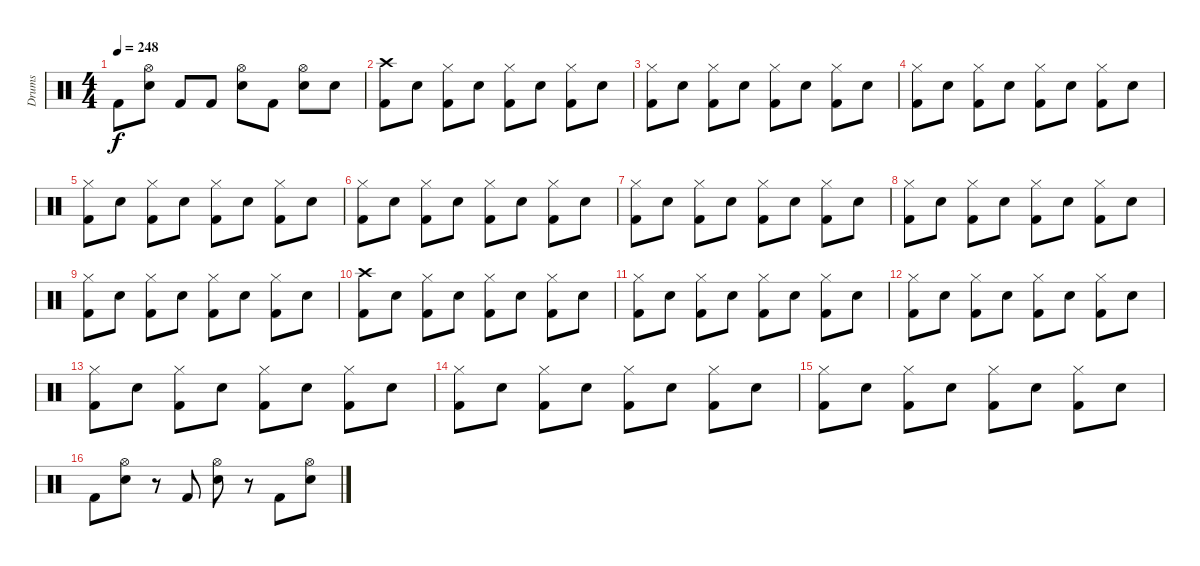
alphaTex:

\track ("Drums" "Drums") {instrument percussion}
\staff {score}
\articulation defaults
\ts (4 4)
\tempo 248
\clef neutral
\ks c "Kick (hit) 2".8{dy f}
("Hi-Hat (open)" "Electric Snare (hit)").8 "Kick (hit) 2".8 "Kick (hit) 2".8 ("Hi-Hat (open)" "Electric Snare (hit)").8 "Kick (hit) 2".8 ("Hi-Hat (open)" "Electric Snare (hit)").8 "Electric Snare (hit)".8 |
("Crash high (hit)" "Kick (hit) 2").8{volume 15} "Electric Snare (hit)".8 ("Hi-Hat (closed)" "Kick (hit) 2").8 "Electric Snare (hit)".8 ("Hi-Hat (closed)" "Kick (hit) 2").8 "Electric Snare (hit)".8 ("Hi-Hat (closed)" "Kick (hit) 2").8 "Electric Snare (hit)".8 |
("Hi-Hat (closed)" "Kick (hit) 2").8 "Electric Snare (hit)".8 ("Hi-Hat (closed)" "Kick (hit) 2").8 "Electric Snare (hit)".8 ("Hi-Hat (closed)" "Kick (hit) 2").8 "Electric Snare (hit)".8 ("Hi-Hat (closed)" "Kick (hit) 2").8 "Electric Snare (hit)".8 |
("Hi-Hat (closed)" "Kick (hit) 2").8 "Electric Snare (hit)".8 ("Hi-Hat (closed)" "Kick (hit) 2").8 "Electric Snare (hit)".8 ("Hi-Hat (closed)" "Kick (hit) 2").8 "Electric Snare (hit)".8 ("Hi-Hat (closed)" "Kick (hit) 2").8 "Electric Snare (hit)".8 |
("Hi-Hat (closed)" "Kick (hit) 2").8 "Electric Snare (hit)".8 ("Hi-Hat (closed)" "Kick (hit) 2").8 "Electric Snare (hit)".8 ("Hi-Hat (closed)" "Kick (hit) 2").8 "Electric Snare (hit)".8 ("Hi-Hat (closed)" "Kick (hit) 2").8 "Electric Snare (hit)".8 |
("Hi-Hat (closed)" "Kick (hit) 2").8 "Electric Snare (hit)".8 ("Hi-Hat (closed)" "Kick (hit) 2").8 "Electric Snare (hit)".8 ("Hi-Hat (closed)" "Kick (hit) 2").8 "Electric Snare (hit)".8 ("Hi-Hat (closed)" "Kick (hit) 2").8 "Electric Snare (hit)".8 |
("Hi-Hat (closed)" "Kick (hit) 2").8 "Electric Snare (hit)".8 ("Hi-Hat (closed)" "Kick (hit) 2").8 "Electric Snare (hit)".8 ("Hi-Hat (closed)" "Kick (hit) 2").8 "Electric Snare (hit)".8 ("Hi-Hat (closed)" "Kick (hit) 2").8 "Electric Snare (hit)".8 |
("Hi-Hat (closed)" "Kick (hit) 2").8 "Electric Snare (hit)".8 ("Hi-Hat (closed)" "Kick (hit) 2").8 "Electric Snare (hit)".8 ("Hi-Hat (closed)" "Kick (hit) 2").8 "Electric Snare (hit)".8 ("Hi-Hat (closed)" "Kick (hit) 2").8 "Electric Snare (hit)".8 |
("Hi-Hat (closed)" "Kick (hit) 2").8 "Electric Snare (hit)".8 ("Hi-Hat (closed)" "Kick (hit) 2").8 "Electric Snare (hit)".8 ("Hi-Hat (closed)" "Kick (hit) 2").8 "Electric Snare (hit)".8 ("Hi-Hat (closed)" "Kick (hit) 2").8 "Electric Snare (hit)".8 |
("Crash high (hit)" "Kick (hit) 2").8 "Electric Snare (hit)".8 ("Hi-Hat (closed)" "Kick (hit) 2").8 "Electric Snare (hit)".8 ("Hi-Hat (closed)" "Kick (hit) 2").8 "Electric Snare (hit)".8 ("Hi-Hat (closed)" "Kick (hit) 2").8 "Electric Snare (hit)".8 |
("Hi-Hat (closed)" "Kick (hit) 2").8 "Electric Snare (hit)".8 ("Hi-Hat (closed)" "Kick (hit) 2").8 "Electric Snare (hit)".8 ("Hi-Hat (closed)" "Kick (hit) 2").8 "Electric Snare (hit)".8 ("Hi-Hat (closed)" "Kick (hit) 2").8 "Electric Snare (hit)".8 |
("Hi-Hat (closed)" "Kick (hit) 2").8 "Electric Snare (hit)".8 ("Hi-Hat (closed)" "Kick (hit) 2").8 "Electric Snare (hit)".8 ("Hi-Hat (closed)" "Kick (hit) 2").8 "Electric Snare (hit)".8 ("Hi-Hat (closed)" "Kick (hit) 2").8 "Electric Snare (hit)".8 |
("Hi-Hat (closed)" "Kick (hit) 2").8 "Electric Snare (hit)".8 ("Hi-Hat (closed)" "Kick (hit) 2").8 "Electric Snare (hit)".8 ("Hi-Hat (closed)" "Kick (hit) 2").8 "Electric Snare (hit)".8 ("Hi-Hat (closed)" "Kick (hit) 2").8 "Electric Snare (hit)".8 |
("Hi-Hat (closed)" "Kick (hit) 2").8 "Electric Snare (hit)".8 ("Hi-Hat (closed)" "Kick (hit) 2").8 "Electric Snare (hit)".8 ("Hi-Hat (closed)" "Kick (hit) 2").8 "Electric Snare (hit)".8 ("Hi-Hat (closed)" "Kick (hit) 2").8 "Electric Snare (hit)".8 |
("Hi-Hat (closed)" "Kick (hit) 2").8 "Electric Snare (hit)".8 ("Hi-Hat (closed)" "Kick (hit) 2").8 "Electric Snare (hit)".8 ("Hi-Hat (closed)" "Kick (hit) 2").8 "Electric Snare (hit)".8 ("Hi-Hat (closed)" "Kick (hit) 2").8 "Electric Snare (hit)".8 |
"Kick (hit) 2".8 ("Hi-Hat (open)" "Electric Snare (hit)").8 r.8 "Kick (hit) 2".8 ("Hi-Hat (open)" "Electric Snare (hit)").8 r.8 "Kick (hit) 2".8 ("Hi-Hat (open)" "Electric Snare (hit)").8
